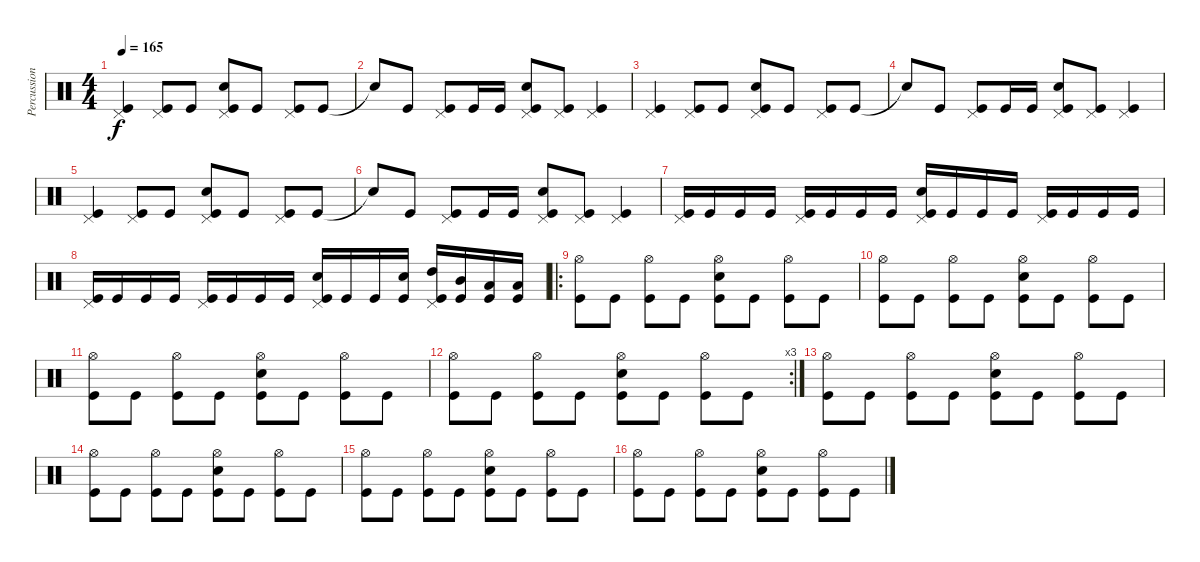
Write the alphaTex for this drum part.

\track ("Percussion" "Percussion") {instrument percussion}
\staff {score}
\articulation defaults
\ts (4 4)
\tempo 165
\clef neutral
\ks c
("Pedal Hi-Hat (hit)" "Kick (hit)").4{dy f} ("Pedal Hi-Hat (hit)" "Kick (hit)").8 "Kick (hit)".8 ("Pedal Hi-Hat (hit)" "Electric Snare (hit)" "Kick (hit)").8 "Kick (hit)".8 ("Pedal Hi-Hat (hit)" "Kick (hit)").8 "Kick (hit)".8 |
"Snare (hit)"{t}.8 "Kick (hit)".8 ("Pedal Hi-Hat (hit)" "Kick (hit)").8 "Kick (hit)".16 "Kick (hit)".16 ("Pedal Hi-Hat (hit)" "Electric Snare (hit)" "Kick (hit)").8 ("Pedal Hi-Hat (hit)" "Kick (hit)").8 ("Pedal Hi-Hat (hit)" "Kick (hit)").4 |
("Pedal Hi-Hat (hit)" "Kick (hit)").4 ("Pedal Hi-Hat (hit)" "Kick (hit)").8 "Kick (hit)".8 ("Pedal Hi-Hat (hit)" "Electric Snare (hit)" "Kick (hit)").8 "Kick (hit)".8 ("Pedal Hi-Hat (hit)" "Kick (hit)").8 "Kick (hit)".8 |
"Snare (hit)"{t}.8 "Kick (hit)".8 ("Pedal Hi-Hat (hit)" "Kick (hit)").8 "Kick (hit)".16 "Kick (hit)".16 ("Pedal Hi-Hat (hit)" "Electric Snare (hit)" "Kick (hit)").8 ("Pedal Hi-Hat (hit)" "Kick (hit)").8 ("Pedal Hi-Hat (hit)" "Kick (hit)").4 |
("Pedal Hi-Hat (hit)" "Kick (hit)").4 ("Pedal Hi-Hat (hit)" "Kick (hit)").8 "Kick (hit)".8 ("Pedal Hi-Hat (hit)" "Electric Snare (hit)" "Kick (hit)").8 "Kick (hit)".8 ("Pedal Hi-Hat (hit)" "Kick (hit)").8 "Kick (hit)".8 |
"Snare (hit)"{t}.8 "Kick (hit)".8 ("Pedal Hi-Hat (hit)" "Kick (hit)").8 "Kick (hit)".16 "Kick (hit)".16 ("Pedal Hi-Hat (hit)" "Electric Snare (hit)" "Kick (hit)").8 ("Pedal Hi-Hat (hit)" "Kick (hit)").8 ("Pedal Hi-Hat (hit)" "Kick (hit)").4 |
("Pedal Hi-Hat (hit)" "Kick (hit)").16 "Kick (hit)".16 "Kick (hit)".16 "Kick (hit)".16 ("Pedal Hi-Hat (hit)" "Kick (hit)").16 "Kick (hit)".16 "Kick (hit)".16 "Kick (hit)".16 ("Pedal Hi-Hat (hit)" "Electric Snare (hit)" "Kick (hit)").16 "Kick (hit)".16 "Kick (hit)".16 "Kick (hit)".16 ("Pedal Hi-Hat (hit)" "Kick (hit)").16 "Kick (hit)".16 "Kick (hit)".16 "Kick (hit)".16 |
("Pedal Hi-Hat (hit)" "Kick (hit)").16 "Kick (hit)".16 "Kick (hit)".16 "Kick (hit)".16 ("Pedal Hi-Hat (hit)" "Kick (hit)").16 "Kick (hit)".16 "Kick (hit)".16 "Kick (hit)".16 ("Pedal Hi-Hat (hit)" "Electric Snare (hit)" "Kick (hit)").16 "Kick (hit)".16 "Kick (hit)".16 ("Electric Snare (hit)" "Kick (hit)").16 ("Pedal Hi-Hat (hit)" "High Tom (hit)" "Kick (hit)").16 ("Mid Tom (hit)" "Kick (hit)").16 ("Low Tom (hit)" "Kick (hit)").16 ("Low Tom (hit)" "Kick (hit)").16 |
\ro
("Hi-Hat (open)" "Kick (hit)").8 "Kick (hit)".8 ("Hi-Hat (open)" "Kick (hit)").8 "Kick (hit)".8 ("Hi-Hat (open)" "Electric Snare (hit)" "Kick (hit)").8 "Kick (hit)".8 ("Hi-Hat (open)" "Kick (hit)").8 "Kick (hit)".8 |
("Hi-Hat (open)" "Kick (hit)").8 "Kick (hit)".8 ("Hi-Hat (open)" "Kick (hit)").8 "Kick (hit)".8 ("Hi-Hat (open)" "Electric Snare (hit)" "Kick (hit)").8 "Kick (hit)".8 ("Hi-Hat (open)" "Kick (hit)").8 "Kick (hit)".8 |
("Hi-Hat (open)" "Kick (hit)").8 "Kick (hit)".8 ("Hi-Hat (open)" "Kick (hit)").8 "Kick (hit)".8 ("Hi-Hat (open)" "Electric Snare (hit)" "Kick (hit)").8 "Kick (hit)".8 ("Hi-Hat (open)" "Kick (hit)").8 "Kick (hit)".8 |
\rc 3
("Hi-Hat (open)" "Kick (hit)").8 "Kick (hit)".8 ("Hi-Hat (open)" "Kick (hit)").8 "Kick (hit)".8 ("Hi-Hat (open)" "Electric Snare (hit)" "Kick (hit)").8 "Kick (hit)".8 ("Hi-Hat (open)" "Kick (hit)").8 "Kick (hit)".8 |
("Hi-Hat (open)" "Kick (hit)").8 "Kick (hit)".8 ("Hi-Hat (open)" "Kick (hit)").8 "Kick (hit)".8 ("Hi-Hat (open)" "Electric Snare (hit)" "Kick (hit)").8 "Kick (hit)".8 ("Hi-Hat (open)" "Kick (hit)").8 "Kick (hit)".8 |
("Hi-Hat (open)" "Kick (hit)").8 "Kick (hit)".8 ("Hi-Hat (open)" "Kick (hit)").8 "Kick (hit)".8 ("Hi-Hat (open)" "Electric Snare (hit)" "Kick (hit)").8 "Kick (hit)".8 ("Hi-Hat (open)" "Kick (hit)").8 "Kick (hit)".8 |
("Hi-Hat (open)" "Kick (hit)").8 "Kick (hit)".8 ("Hi-Hat (open)" "Kick (hit)").8 "Kick (hit)".8 ("Hi-Hat (open)" "Electric Snare (hit)" "Kick (hit)").8 "Kick (hit)".8 ("Hi-Hat (open)" "Kick (hit)").8 "Kick (hit)".8 |
("Hi-Hat (open)" "Kick (hit)").8 "Kick (hit)".8 ("Hi-Hat (open)" "Kick (hit)").8 "Kick (hit)".8 ("Hi-Hat (open)" "Electric Snare (hit)" "Kick (hit)").8 "Kick (hit)".8 ("Hi-Hat (open)" "Kick (hit)").8 "Kick (hit)".8
